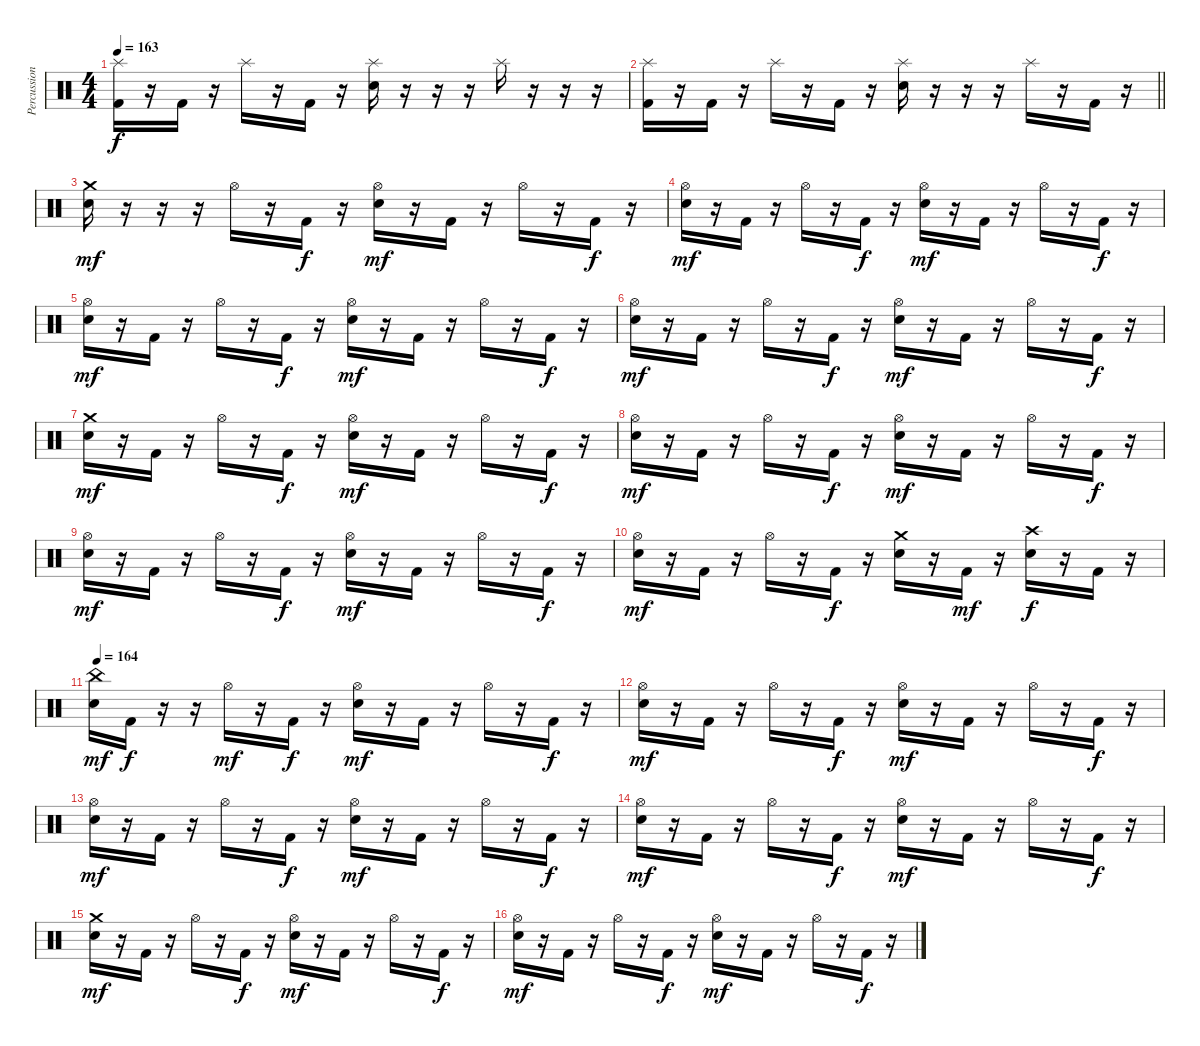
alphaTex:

\track ("Percussion" "Percussion") {instrument percussion}
\staff {score}
\articulation defaults
\ts (4 4)
\tempo 163
\clef neutral
\ks c
("Splash (hit)" "Kick (hit) 2").16{dy f} r.16 "Kick (hit) 2".16 r.16 "Splash (hit)".16 r.16 "Kick (hit) 2".16 r.16 ("Splash (hit)" "Electric Snare (hit)").16 r.16 r.16 r.16 "Splash (hit)".16 r.16 r.16 r.16 |
\barLineRight lightlight
("Splash (hit)" "Kick (hit) 2").16 r.16 "Kick (hit) 2".16 r.16 "Splash (hit)".16 r.16 "Kick (hit) 2".16 r.16 ("Splash (hit)" "Electric Snare (hit)").16 r.16 r.16 r.16 "Splash (hit)".16 r.16 "Kick (hit) 2".16 r.16 |
\section ("" "")
("Crash medium (hit)" "Electric Snare (hit)").16{dy mf} r.16 r.16 r.16 "Hi-Hat (open)".16 r.16 "Kick (hit) 2".16{dy f} r.16 ("Hi-Hat (open)" "Electric Snare (hit)").16{dy mf} r.16 "Kick (hit) 2".16 r.16 "Hi-Hat (open)".16 r.16 "Kick (hit) 2".16{dy f} r.16 |
("Hi-Hat (open)" "Electric Snare (hit)").16{dy mf} r.16 "Kick (hit) 2".16 r.16 "Hi-Hat (open)".16 r.16 "Kick (hit) 2".16{dy f} r.16 ("Hi-Hat (open)" "Electric Snare (hit)").16{dy mf} r.16 "Kick (hit) 2".16 r.16 "Hi-Hat (open)".16 r.16 "Kick (hit) 2".16{dy f} r.16 |
("Hi-Hat (open)" "Electric Snare (hit)").16{dy mf} r.16 "Kick (hit) 2".16 r.16 "Hi-Hat (open)".16 r.16 "Kick (hit) 2".16{dy f} r.16 ("Hi-Hat (open)" "Electric Snare (hit)").16{dy mf} r.16 "Kick (hit) 2".16 r.16 "Hi-Hat (open)".16 r.16 "Kick (hit) 2".16{dy f} r.16 |
("Hi-Hat (open)" "Electric Snare (hit)").16{dy mf} r.16 "Kick (hit) 2".16 r.16 "Hi-Hat (open)".16 r.16 "Kick (hit) 2".16{dy f} r.16 ("Hi-Hat (open)" "Electric Snare (hit)").16{dy mf} r.16 "Kick (hit) 2".16 r.16 "Hi-Hat (open)".16 r.16 "Kick (hit) 2".16{dy f} r.16 |
("Crash medium (hit)" "Electric Snare (hit)").16{dy mf} r.16 "Kick (hit) 2".16 r.16 "Hi-Hat (open)".16 r.16 "Kick (hit) 2".16{dy f} r.16 ("Hi-Hat (open)" "Electric Snare (hit)").16{dy mf} r.16 "Kick (hit) 2".16 r.16 "Hi-Hat (open)".16 r.16 "Kick (hit) 2".16{dy f} r.16 |
("Hi-Hat (open)" "Electric Snare (hit)").16{dy mf} r.16 "Kick (hit) 2".16 r.16 "Hi-Hat (open)".16 r.16 "Kick (hit) 2".16{dy f} r.16 ("Hi-Hat (open)" "Electric Snare (hit)").16{dy mf} r.16 "Kick (hit) 2".16 r.16 "Hi-Hat (open)".16 r.16 "Kick (hit) 2".16{dy f} r.16 |
("Hi-Hat (open)" "Electric Snare (hit)").16{dy mf} r.16 "Kick (hit) 2".16 r.16 "Hi-Hat (open)".16 r.16 "Kick (hit) 2".16{dy f} r.16 ("Hi-Hat (open)" "Electric Snare (hit)").16{dy mf} r.16 "Kick (hit) 2".16 r.16 "Hi-Hat (open)".16 r.16 "Kick (hit) 2".16{dy f} r.16 |
("Hi-Hat (open)" "Electric Snare (hit)").16{dy mf} r.16 "Kick (hit) 2".16 r.16 "Hi-Hat (open)".16 r.16 "Kick (hit) 2".16{dy f} r.16 ("Crash medium (hit)" "Electric Snare (hit)").16 r.16 "Kick (hit) 2".16{dy mf} r.16 ("Crash high (hit)" "Electric Snare (hit)").16{dy f} r.16 "Kick (hit) 2".16 r.16 |
\tempo 164
("China (hit)" "Electric Snare (hit)").16{dy mf} "Kick (hit) 2".16{dy f} r.16 r.16 "Hi-Hat (open)".16{dy mf} r.16 "Kick (hit) 2".16{dy f} r.16 ("Hi-Hat (open)" "Electric Snare (hit)").16{dy mf} r.16 "Kick (hit) 2".16 r.16 "Hi-Hat (open)".16 r.16 "Kick (hit) 2".16{dy f} r.16 |
("Hi-Hat (open)" "Electric Snare (hit)").16{dy mf} r.16 "Kick (hit) 2".16 r.16 "Hi-Hat (open)".16 r.16 "Kick (hit) 2".16{dy f} r.16 ("Hi-Hat (open)" "Electric Snare (hit)").16{dy mf} r.16 "Kick (hit) 2".16 r.16 "Hi-Hat (open)".16 r.16 "Kick (hit) 2".16{dy f} r.16 |
("Hi-Hat (open)" "Electric Snare (hit)").16{dy mf} r.16 "Kick (hit) 2".16 r.16 "Hi-Hat (open)".16 r.16 "Kick (hit) 2".16{dy f} r.16 ("Hi-Hat (open)" "Electric Snare (hit)").16{dy mf} r.16 "Kick (hit) 2".16 r.16 "Hi-Hat (open)".16 r.16 "Kick (hit) 2".16{dy f} r.16 |
("Hi-Hat (open)" "Electric Snare (hit)").16{dy mf} r.16 "Kick (hit) 2".16 r.16 "Hi-Hat (open)".16 r.16 "Kick (hit) 2".16{dy f} r.16 ("Hi-Hat (open)" "Electric Snare (hit)").16{dy mf} r.16 "Kick (hit) 2".16 r.16 "Hi-Hat (open)".16 r.16 "Kick (hit) 2".16{dy f} r.16 |
("Crash medium (hit)" "Electric Snare (hit)").16{dy mf} r.16 "Kick (hit) 2".16 r.16 "Hi-Hat (open)".16 r.16 "Kick (hit) 2".16{dy f} r.16 ("Hi-Hat (open)" "Electric Snare (hit)").16{dy mf} r.16 "Kick (hit) 2".16 r.16 "Hi-Hat (open)".16 r.16 "Kick (hit) 2".16{dy f} r.16 |
("Hi-Hat (open)" "Electric Snare (hit)").16{dy mf} r.16 "Kick (hit) 2".16 r.16 "Hi-Hat (open)".16 r.16 "Kick (hit) 2".16{dy f} r.16 ("Hi-Hat (open)" "Electric Snare (hit)").16{dy mf} r.16 "Kick (hit) 2".16 r.16 "Hi-Hat (open)".16 r.16 "Kick (hit) 2".16{dy f} r.16
